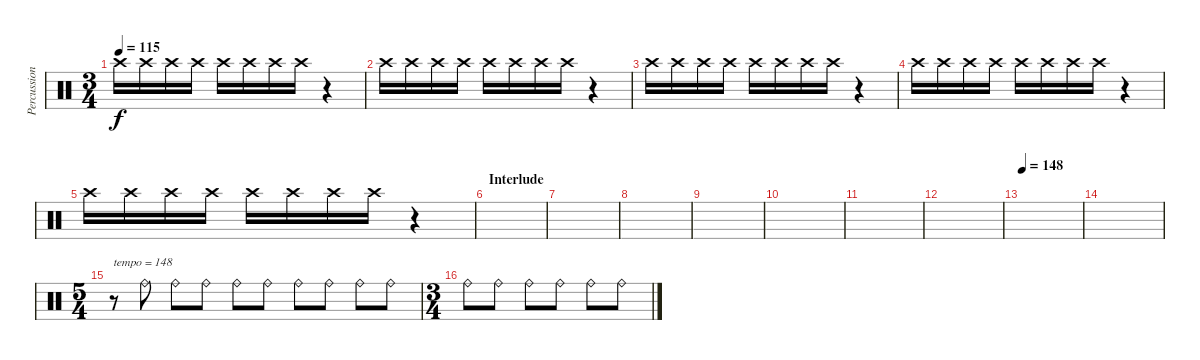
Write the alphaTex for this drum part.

\track ("Percussion" "Percussion") {instrument percussion}
\staff {score}
\articulation defaults
\ts (3 4)
\tempo 115
\clef neutral
\ks c "Crash high (hit)".16{dy f volume 10} "Crash high (hit)".16{volume 0} "Crash high (hit)".16 "Crash high (hit)".16 "Crash high (hit)".16 "Crash high (hit)".16 "Crash high (hit)".16 "Crash high (hit)".16
r.4 |
"Crash high (hit)".16{volume 10} "Crash high (hit)".16{volume 0} "Crash high (hit)".16 "Crash high (hit)".16 "Crash high (hit)".16 "Crash high (hit)".16 "Crash high (hit)".16 "Crash high (hit)".16 r.4 |
"Crash high (hit)".16{volume 10} "Crash high (hit)".16{volume 0} "Crash high (hit)".16 "Crash high (hit)".16 "Crash high (hit)".16 "Crash high (hit)".16 "Crash high (hit)".16 "Crash high (hit)".16 r.4 |
"Crash high (hit)".16{volume 10} "Crash high (hit)".16{volume 0} "Crash high (hit)".16 "Crash high (hit)".16 "Crash high (hit)".16 "Crash high (hit)".16 "Crash high (hit)".16 "Crash high (hit)".16 r.4 |
"Crash high (hit)".16{volume 10} "Crash high (hit)".16{volume 0} "Crash high (hit)".16 "Crash high (hit)".16 "Crash high (hit)".16 "Crash high (hit)".16 "Crash high (hit)".16 "Crash high (hit)".16 r.4 |
\section ("" "Interlude")
|
|
|
|
|
|
|
\tempo 148
|
|
\ts (5 4)
r.8{txt "tempo = 148" volume 11 balance 8} "Ride (bell)".8 "Ride (bell)".8 "Ride (bell)".8 "Ride (bell)".8 "Ride (bell)".8 "Ride (bell)".8 "Ride (bell)".8 "Ride (bell)".8 "Ride (bell)".8 |
\ts (3 4)
"Ride (bell)".8 "Ride (bell)".8 "Ride (bell)".8 "Ride (bell)".8 "Ride (bell)".8 "Ride (bell)".8
